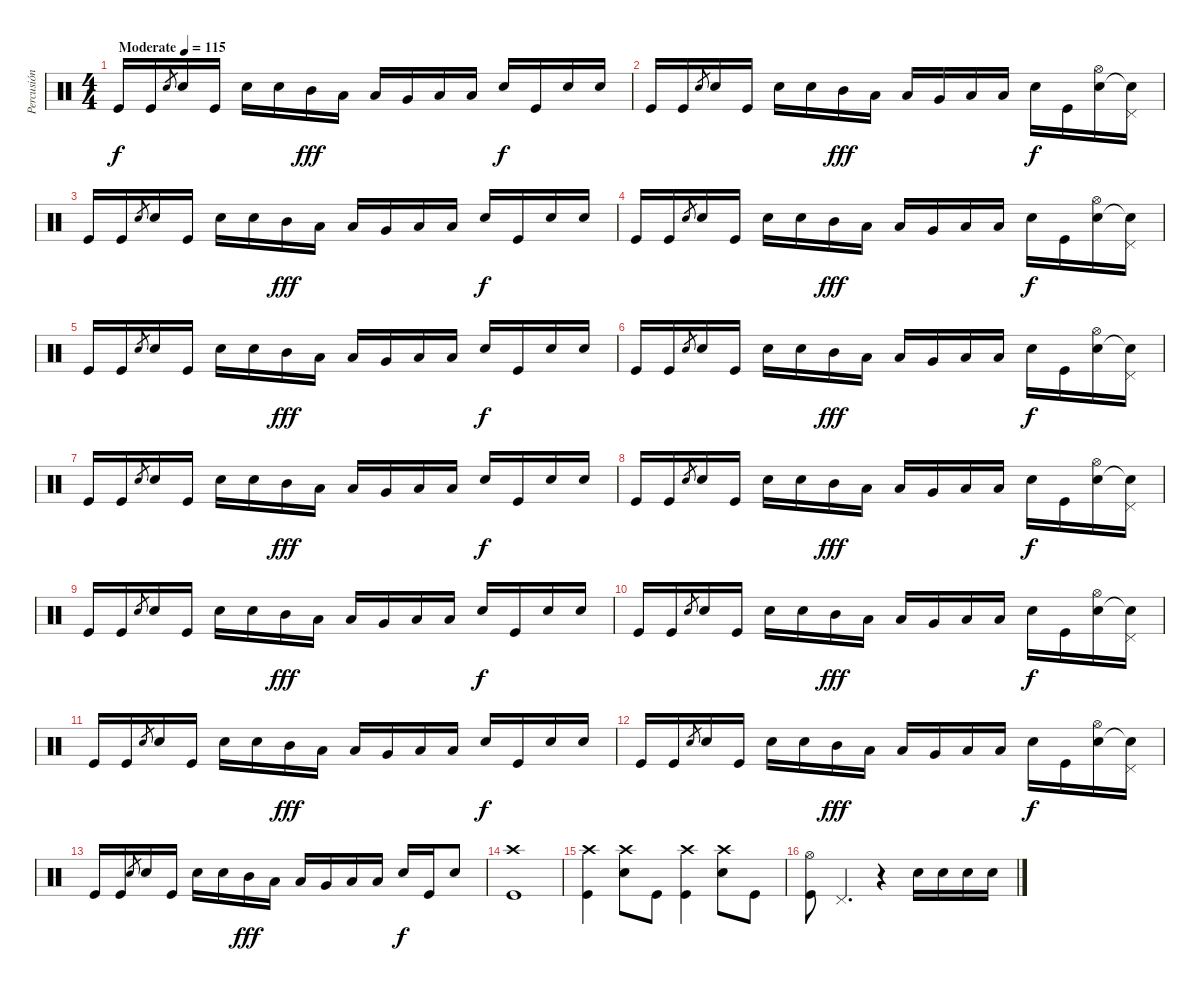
\track ("Percusión" "Percusión") {instrument percussion}
\staff {score}
\articulation defaults
\ts (4 4)
\tempo (115 "Moderate")
\clef neutral
\ks c "Kick (hit)".16{dy f volume 0} "Kick (hit)".16 "Electric Snare (hit)".8{gr} "Electric Snare (hit)".16 "Kick (hit)".16 "Electric Snare (hit)".16{volume 8} "Electric Snare (hit)".16 "Mid Tom (hit)".16{dy fff} "Low Tom (hit)".16 "Low Tom (hit)".16 "Very Low Tom (hit)".16 "Low Floor Tom (hit)".16 "Low Floor Tom (hit)".16 "Electric Snare (hit)".16{dy f} "Kick (hit)".16 "Electric Snare (hit)".16 "Electric Snare (hit)".16
|
"Kick (hit)".16 "Kick (hit)".16 "Electric Snare (hit)".8{gr} "Electric Snare (hit)".16 "Kick (hit)".16 "Electric Snare (hit)".16 "Electric Snare (hit)".16 "Mid Tom (hit)".16{dy fff} "Low Tom (hit)".16 "Low Tom (hit)".16 "Very Low Tom (hit)".16 "Low Floor Tom (hit)".16 "Low Floor Tom (hit)".16 "Electric Snare (hit)".16{dy f} "Kick (hit)".16 ("Electric Snare (hit)" "Hi-Hat (open)").16 ("Electric Snare (hit)"{t} "Pedal Hi-Hat (hit)").16 |
"Kick (hit)".16 "Kick (hit)".16 "Electric Snare (hit)".8{gr} "Electric Snare (hit)".16 "Kick (hit)".16 "Electric Snare (hit)".16 "Electric Snare (hit)".16 "Mid Tom (hit)".16{dy fff} "Low Tom (hit)".16 "Low Tom (hit)".16 "Very Low Tom (hit)".16 "Low Floor Tom (hit)".16 "Low Floor Tom (hit)".16 "Electric Snare (hit)".16{dy f} "Kick (hit)".16 "Electric Snare (hit)".16 "Electric Snare (hit)".16 |
"Kick (hit)".16 "Kick (hit)".16 "Electric Snare (hit)".8{gr} "Electric Snare (hit)".16 "Kick (hit)".16 "Electric Snare (hit)".16 "Electric Snare (hit)".16 "Mid Tom (hit)".16{dy fff} "Low Tom (hit)".16 "Low Tom (hit)".16 "Very Low Tom (hit)".16 "Low Floor Tom (hit)".16 "Low Floor Tom (hit)".16 "Electric Snare (hit)".16{dy f} "Kick (hit)".16 ("Electric Snare (hit)" "Hi-Hat (open)").16 ("Electric Snare (hit)"{t} "Pedal Hi-Hat (hit)").16 |
"Kick (hit)".16 "Kick (hit)".16 "Electric Snare (hit)".8{gr} "Electric Snare (hit)".16 "Kick (hit)".16 "Electric Snare (hit)".16 "Electric Snare (hit)".16 "Mid Tom (hit)".16{dy fff} "Low Tom (hit)".16 "Low Tom (hit)".16 "Very Low Tom (hit)".16 "Low Floor Tom (hit)".16 "Low Floor Tom (hit)".16 "Electric Snare (hit)".16{dy f} "Kick (hit)".16 "Electric Snare (hit)".16 "Electric Snare (hit)".16 |
"Kick (hit)".16{volume 13} "Kick (hit)".16 "Electric Snare (hit)".8{gr} "Electric Snare (hit)".16 "Kick (hit)".16 "Electric Snare (hit)".16 "Electric Snare (hit)".16 "Mid Tom (hit)".16{dy fff} "Low Tom (hit)".16 "Low Tom (hit)".16 "Very Low Tom (hit)".16 "Low Floor Tom (hit)".16 "Low Floor Tom (hit)".16 "Electric Snare (hit)".16{dy f} "Kick (hit)".16 ("Electric Snare (hit)" "Hi-Hat (open)").16 ("Electric Snare (hit)"{t} "Pedal Hi-Hat (hit)").16 |
"Kick (hit)".16 "Kick (hit)".16 "Electric Snare (hit)".8{gr} "Electric Snare (hit)".16 "Kick (hit)".16 "Electric Snare (hit)".16 "Electric Snare (hit)".16 "Mid Tom (hit)".16{dy fff} "Low Tom (hit)".16 "Low Tom (hit)".16 "Very Low Tom (hit)".16 "Low Floor Tom (hit)".16 "Low Floor Tom (hit)".16 "Electric Snare (hit)".16{dy f} "Kick (hit)".16 "Electric Snare (hit)".16 "Electric Snare (hit)".16 |
"Kick (hit)".16 "Kick (hit)".16 "Electric Snare (hit)".8{gr} "Electric Snare (hit)".16 "Kick (hit)".16 "Electric Snare (hit)".16 "Electric Snare (hit)".16 "Mid Tom (hit)".16{dy fff} "Low Tom (hit)".16 "Low Tom (hit)".16 "Very Low Tom (hit)".16 "Low Floor Tom (hit)".16 "Low Floor Tom (hit)".16 "Electric Snare (hit)".16{dy f} "Kick (hit)".16 ("Electric Snare (hit)" "Hi-Hat (open)").16 ("Electric Snare (hit)"{t} "Pedal Hi-Hat (hit)").16 |
"Kick (hit)".16 "Kick (hit)".16 "Electric Snare (hit)".8{gr} "Electric Snare (hit)".16 "Kick (hit)".16 "Electric Snare (hit)".16 "Electric Snare (hit)".16 "Mid Tom (hit)".16{dy fff} "Low Tom (hit)".16 "Low Tom (hit)".16 "Very Low Tom (hit)".16 "Low Floor Tom (hit)".16 "Low Floor Tom (hit)".16 "Electric Snare (hit)".16{dy f} "Kick (hit)".16 "Electric Snare (hit)".16 "Electric Snare (hit)".16 |
"Kick (hit)".16 "Kick (hit)".16 "Electric Snare (hit)".8{gr} "Electric Snare (hit)".16 "Kick (hit)".16 "Electric Snare (hit)".16 "Electric Snare (hit)".16 "Mid Tom (hit)".16{dy fff} "Low Tom (hit)".16 "Low Tom (hit)".16 "Very Low Tom (hit)".16 "Low Floor Tom (hit)".16 "Low Floor Tom (hit)".16 "Electric Snare (hit)".16{dy f} "Kick (hit)".16 ("Electric Snare (hit)" "Hi-Hat (open)").16 ("Electric Snare (hit)"{t} "Pedal Hi-Hat (hit)").16 |
"Kick (hit)".16 "Kick (hit)".16 "Electric Snare (hit)".8{gr} "Electric Snare (hit)".16 "Kick (hit)".16 "Electric Snare (hit)".16 "Electric Snare (hit)".16 "Mid Tom (hit)".16{dy fff} "Low Tom (hit)".16 "Low Tom (hit)".16 "Very Low Tom (hit)".16 "Low Floor Tom (hit)".16 "Low Floor Tom (hit)".16 "Electric Snare (hit)".16{dy f} "Kick (hit)".16 "Electric Snare (hit)".16 "Electric Snare (hit)".16 |
"Kick (hit)".16 "Kick (hit)".16 "Electric Snare (hit)".8{gr} "Electric Snare (hit)".16 "Kick (hit)".16 "Electric Snare (hit)".16 "Electric Snare (hit)".16 "Mid Tom (hit)".16{dy fff} "Low Tom (hit)".16 "Low Tom (hit)".16 "Very Low Tom (hit)".16 "Low Floor Tom (hit)".16 "Low Floor Tom (hit)".16 "Electric Snare (hit)".16{dy f} "Kick (hit)".16 ("Electric Snare (hit)" "Hi-Hat (open)").16 ("Electric Snare (hit)"{t} "Pedal Hi-Hat (hit)").16 |
"Kick (hit)".16 "Kick (hit)".16 "Electric Snare (hit)".8{gr} "Electric Snare (hit)".16 "Kick (hit)".16 "Electric Snare (hit)".16 "Electric Snare (hit)".16 "Mid Tom (hit)".16{dy fff} "Low Tom (hit)".16 "Low Tom (hit)".16 "Very Low Tom (hit)".16 "Low Floor Tom (hit)".16 "Low Floor Tom (hit)".16 "Electric Snare (hit)".16{dy f} "Kick (hit)".16 "Electric Snare (hit)".8 |
("Crash high (hit)" "Kick (hit)").1 |
("Crash high (hit)" "Kick (hit)").4 ("Crash high (hit)" "Electric Snare (hit)").8 "Kick (hit)".8 ("Crash high (hit)" "Kick (hit)").4 ("Crash high (hit)" "Electric Snare (hit)").8 "Kick (hit)".8 |
("Hi-Hat (open)" "Kick (hit)").8 "Pedal Hi-Hat (hit)".4{d} r.4 "Electric Snare (hit)".16 "Electric Snare (hit)".16 "Electric Snare (hit)".16 "Electric Snare (hit)".16
